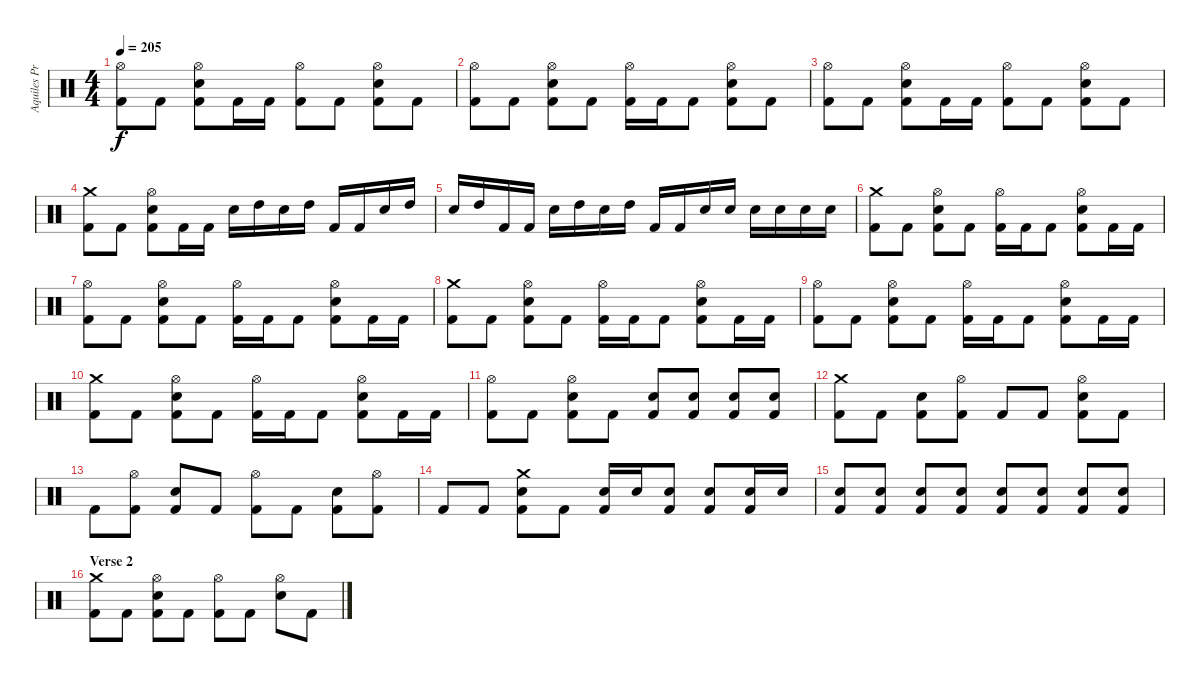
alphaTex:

\track ("Aquiles Priester" "Aquiles Pr") {instrument percussion}
\staff {score}
\articulation defaults
\ts (4 4)
\tempo 205
\clef neutral
\ks c
("Hi-Hat (open)" "Kick (hit) 2").8{dy f} "Kick (hit) 2".8 ("Hi-Hat (open)" "Electric Snare (hit)" "Kick (hit) 2").8 "Kick (hit) 2".16 "Kick (hit) 2".16 ("Hi-Hat (open)" "Kick (hit) 2").8 "Kick (hit) 2".8 ("Hi-Hat (open)" "Electric Snare (hit)" "Kick (hit) 2").8 "Kick (hit) 2".8 |
("Hi-Hat (open)" "Kick (hit) 2").8 "Kick (hit) 2".8 ("Hi-Hat (open)" "Electric Snare (hit)" "Kick (hit) 2").8 "Kick (hit) 2".8 ("Hi-Hat (open)" "Kick (hit) 2").16 "Kick (hit) 2".16 "Kick (hit) 2".8 ("Hi-Hat (open)" "Electric Snare (hit)" "Kick (hit) 2").8 "Kick (hit) 2".8 |
("Hi-Hat (open)" "Kick (hit) 2").8 "Kick (hit) 2".8 ("Hi-Hat (open)" "Electric Snare (hit)" "Kick (hit) 2").8 "Kick (hit) 2".16 "Kick (hit) 2".16 ("Hi-Hat (open)" "Kick (hit) 2").8 "Kick (hit) 2".8 ("Hi-Hat (open)" "Electric Snare (hit)" "Kick (hit) 2").8 "Kick (hit) 2".8 |
("Crash medium (hit)" "Kick (hit) 2").8 "Kick (hit) 2".8 ("Hi-Hat (open)" "Electric Snare (hit)" "Kick (hit) 2").8 "Kick (hit) 2".16 "Kick (hit) 2".16 "Electric Snare (hit)".16 "High Tom (hit)".16 "Electric Snare (hit)".16 "High Tom (hit)".16 "Kick (hit) 2".16 "Kick (hit) 2".16 "Electric Snare (hit)".16 "High Tom (hit)".16 |
"Electric Snare (hit)".16 "High Tom (hit)".16 "Kick (hit) 2".16 "Kick (hit) 2".16 "Electric Snare (hit)".16 "High Tom (hit)".16 "Electric Snare (hit)".16 "High Tom (hit)".16 "Kick (hit) 2".16 "Kick (hit) 2".16 "Electric Snare (hit)".16 "Electric Snare (hit)".16 "Electric Snare (hit)".16 "Electric Snare (hit)".16 "Electric Snare (hit)".16 "Electric Snare (hit)".16 |
("Crash medium (hit)" "Kick (hit) 2").8 "Kick (hit) 2".8 ("Hi-Hat (open)" "Electric Snare (hit)" "Kick (hit) 2").8 "Kick (hit) 2".8 ("Hi-Hat (open)" "Kick (hit) 2").16 "Kick (hit) 2".16 "Kick (hit) 2".8 ("Hi-Hat (open)" "Electric Snare (hit)" "Kick (hit) 2").8 "Kick (hit) 2".16 "Kick (hit) 2".16 |
("Hi-Hat (open)" "Kick (hit) 2").8 "Kick (hit) 2".8 ("Hi-Hat (open)" "Electric Snare (hit)" "Kick (hit) 2").8 "Kick (hit) 2".8 ("Hi-Hat (open)" "Kick (hit) 2").16 "Kick (hit) 2".16 "Kick (hit) 2".8 ("Hi-Hat (open)" "Electric Snare (hit)" "Kick (hit) 2").8 "Kick (hit) 2".16 "Kick (hit) 2".16 |
("Crash medium (hit)" "Kick (hit) 2").8 "Kick (hit) 2".8 ("Hi-Hat (open)" "Electric Snare (hit)" "Kick (hit) 2").8 "Kick (hit) 2".8 ("Hi-Hat (open)" "Kick (hit) 2").16 "Kick (hit) 2".16 "Kick (hit) 2".8 ("Hi-Hat (open)" "Electric Snare (hit)" "Kick (hit) 2").8 "Kick (hit) 2".16 "Kick (hit) 2".16 |
("Hi-Hat (open)" "Kick (hit) 2").8 "Kick (hit) 2".8 ("Hi-Hat (open)" "Electric Snare (hit)" "Kick (hit) 2").8 "Kick (hit) 2".8 ("Hi-Hat (open)" "Kick (hit) 2").16 "Kick (hit) 2".16 "Kick (hit) 2".8 ("Hi-Hat (open)" "Electric Snare (hit)" "Kick (hit) 2").8 "Kick (hit) 2".16 "Kick (hit) 2".16 |
("Crash medium (hit)" "Kick (hit) 2").8 "Kick (hit) 2".8 ("Hi-Hat (open)" "Electric Snare (hit)" "Kick (hit) 2").8 "Kick (hit) 2".8 ("Hi-Hat (open)" "Kick (hit) 2").16 "Kick (hit) 2".16 "Kick (hit) 2".8 ("Hi-Hat (open)" "Electric Snare (hit)" "Kick (hit) 2").8 "Kick (hit) 2".16 "Kick (hit) 2".16 |
("Hi-Hat (open)" "Kick (hit) 2").8 "Kick (hit) 2".8 ("Hi-Hat (open)" "Electric Snare (hit)" "Kick (hit) 2").8 "Kick (hit) 2".8 ("Electric Snare (hit)" "Kick (hit) 2").8 ("Electric Snare (hit)" "Kick (hit) 2").8 ("Electric Snare (hit)" "Kick (hit) 2").8 ("Electric Snare (hit)" "Kick (hit) 2").8 |
("Crash medium (hit)" "Kick (hit) 2").8 "Kick (hit) 2".8 ("Electric Snare (hit)" "Kick (hit) 2").8 ("Hi-Hat (open)" "Kick (hit) 2").8 "Kick (hit) 2".8 "Kick (hit) 2".8 ("Hi-Hat (open)" "Electric Snare (hit)" "Kick (hit) 2").8 "Kick (hit) 2".8 |
"Kick (hit) 2".8 ("Hi-Hat (open)" "Kick (hit) 2").8 ("Electric Snare (hit)" "Kick (hit) 2").8 "Kick (hit) 2".8 ("Hi-Hat (open)" "Kick (hit) 2").8 "Kick (hit) 2".8 ("Electric Snare (hit)" "Kick (hit) 2").8 ("Hi-Hat (open)" "Kick (hit) 2").8 |
"Kick (hit) 2".8 "Kick (hit) 2".8 ("Crash medium (hit)" "Electric Snare (hit)" "Kick (hit) 2").8 "Kick (hit) 2".8 ("Electric Snare (hit)" "Kick (hit) 2").16 "Electric Snare (hit)".16 ("Electric Snare (hit)" "Kick (hit) 2").8 ("Electric Snare (hit)" "Kick (hit) 2").8 ("Electric Snare (hit)" "Kick (hit) 2").16 "Electric Snare (hit)".16 |
("Electric Snare (hit)" "Kick (hit) 2").8 ("Electric Snare (hit)" "Kick (hit) 2").8 ("Electric Snare (hit)" "Kick (hit) 2").8 ("Electric Snare (hit)" "Kick (hit) 2").8 ("Electric Snare (hit)" "Kick (hit) 2").8 ("Electric Snare (hit)" "Kick (hit) 2").8 ("Electric Snare (hit)" "Kick (hit) 2").8 ("Electric Snare (hit)" "Kick (hit) 2").8 |
\section ("" "Verse 2")
("Crash medium (hit)" "Kick (hit) 2").8 "Kick (hit) 2".8 ("Hi-Hat (open)" "Electric Snare (hit)" "Kick (hit) 2").8 "Kick (hit) 2".8 ("Hi-Hat (open)" "Kick (hit) 2").8 "Kick (hit) 2".8 ("Hi-Hat (open)" "Electric Snare (hit)").8 "Kick (hit) 2".8
